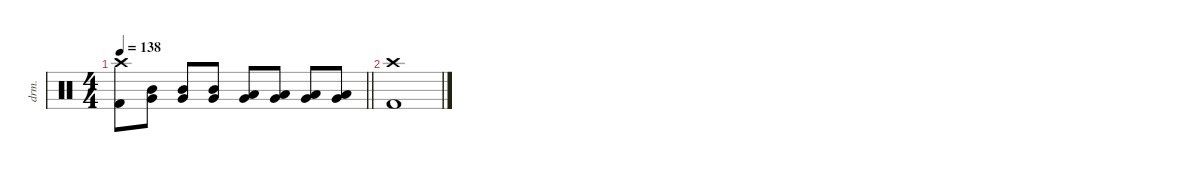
\defaultSystemsLayout 4
\hideDynamics
\bracketExtendMode nobrackets
\track ("Percussions" "drm.") {instrument percussion}
\staff {score}
\articulation defaults
\ts (4 4)
\tempo 138
\clef neutral
\barLineRight lightlight
\ks aminor
("Crash high (hit)" "Kick (hit) 2").8{dy f beam Down} ("Mid Tom (hit)" "Very Low Tom (hit)").8{beam Down} ("Very Low Tom (hit)" "Mid Tom (hit)").8{beam Up} ("Very Low Tom (hit)" "Mid Tom (hit)").8{beam Up} ("Very Low Tom (hit)" "Low Tom (hit)").8{beam Up} ("Very Low Tom (hit)" "Low Tom (hit)").8{beam Up} ("Very Low Tom (hit)" "Low Tom (hit)").8{beam Up} ("Very Low Tom (hit)" "Low Tom (hit)").8{beam Up} |
("Kick (hit) 2" "Crash high (hit)").1{beam Down}
